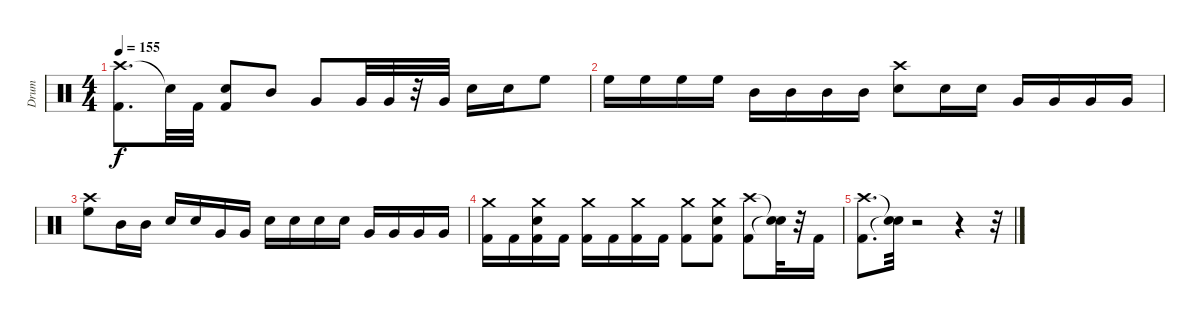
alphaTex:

\track ("Drum" "Drum") {instrument percussion}
\staff {score}
\articulation defaults
\ts (4 4)
\tempo 155
\clef neutral
\ks c
("Crash high (hit)" "Kick (hit) 2").8{d dy f} "Snare (hit)"{t}.32 "Kick (hit) 2".32 ("Kick (hit) 2" "Snare (hit) 2").8 "Mid Tom (hit)".8 "Very Low Tom (hit)".8 "Very Low Tom (hit)".32 "Very Low Tom (hit)".32 r.32 "Very Low Tom (hit)".32 "Snare (hit) 2".16 "Snare (hit) 2".16 "High Floor Tom (hit)".8 |
"High Floor Tom (hit)".16 "High Floor Tom (hit)".16 "High Floor Tom (hit)".16 "High Floor Tom (hit)".16 "Mid Tom (hit)".16 "Mid Tom (hit)".16 "Mid Tom (hit)".16 "Mid Tom (hit)".16 ("Snare (hit) 2" "Crash high (hit)").8 "Snare (hit) 2".16 "Snare (hit) 2".16 "Very Low Tom (hit)".16 "Very Low Tom (hit)".16 "Very Low Tom (hit)".16 "Very Low Tom (hit)".16 |
("High Floor Tom (hit)" "Crash high (hit)").8 "Mid Tom (hit)".16 "Mid Tom (hit)".16 "Snare (hit) 2".16 "Snare (hit) 2".16 "Very Low Tom (hit)".16 "Very Low Tom (hit)".16 "Snare (hit) 2".16 "Snare (hit) 2".16 "Snare (hit) 2".16 "Snare (hit) 2".16 "Very Low Tom (hit)".16 "Very Low Tom (hit)".16 "Very Low Tom (hit)".16 "Very Low Tom (hit)".16 |
("Crash medium (hit)" "Kick (hit) 2").16 "Kick (hit) 2".16 ("Crash medium (hit)" "Kick (hit) 2" "Snare (hit) 2").16 "Kick (hit) 2".16 ("Crash medium (hit)" "Kick (hit) 2").16 "Kick (hit) 2".16 ("Crash medium (hit)" "Kick (hit) 2").16 "Kick (hit) 2".16 ("Crash medium (hit)" "Kick (hit) 2").8 ("Crash medium (hit)" "Kick (hit) 2" "Snare (hit) 2").8 ("Kick (hit) 2" "Crash high (hit)").8 ("Snare (hit)"{t} "Snare (hit)"{t}).32 r.32 "Kick (hit) 2".16 |
("Crash high (hit)" "Kick (hit) 2").8{d} ("Snare (hit)"{t} "Snare (hit)"{t}).32 r.2 r.4 r.32
